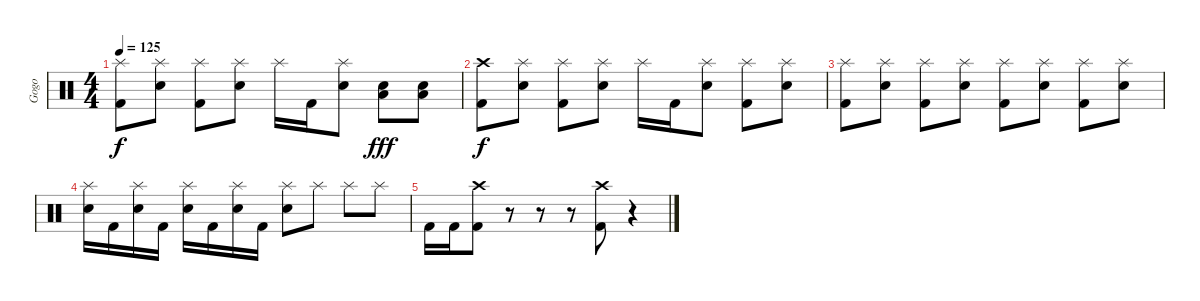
\track ("Gogo" "Gogo") {instrument percussion}
\staff {score}
\articulation defaults
\ts (4 4)
\tempo 125
\clef neutral
\ks c
("Splash (hit)" "Kick (hit) 2").8{dy f} ("Splash (hit)" "Electric Snare (hit)").8 ("Splash (hit)" "Kick (hit) 2").8 ("Splash (hit)" "Electric Snare (hit)").8 "Splash (hit)".16 "Kick (hit) 2".16 ("Splash (hit)" "Electric Snare (hit)").8 ("Electric Snare (hit)" "Low Floor Tom (hit)").8{dy fff} ("Electric Snare (hit)" "Low Floor Tom (hit)").8 |
("Crash high (hit)" "Kick (hit) 2").8{dy f} ("Splash (hit)" "Electric Snare (hit)").8 ("Splash (hit)" "Kick (hit) 2").8 ("Splash (hit)" "Electric Snare (hit)").8 "Splash (hit)".16 "Kick (hit) 2".16 ("Splash (hit)" "Electric Snare (hit)").8 ("Splash (hit)" "Kick (hit) 2").8 ("Splash (hit)" "Electric Snare (hit)").8 |
("Splash (hit)" "Kick (hit) 2").8 ("Splash (hit)" "Electric Snare (hit)").8 ("Splash (hit)" "Kick (hit) 2").8 ("Splash (hit)" "Electric Snare (hit)").8 ("Splash (hit)" "Kick (hit) 2").8 ("Splash (hit)" "Electric Snare (hit)").8 ("Splash (hit)" "Kick (hit) 2").8 ("Splash (hit)" "Electric Snare (hit)").8 |
("Splash (hit)" "Electric Snare (hit)").16 "Kick (hit) 2".16 ("Splash (hit)" "Electric Snare (hit)").16 "Kick (hit) 2".16 ("Splash (hit)" "Electric Snare (hit)").16 "Kick (hit) 2".16 ("Splash (hit)" "Electric Snare (hit)").16 "Kick (hit) 2".16 ("Splash (hit)" "Electric Snare (hit)").8 "Splash (hit)".8 "Splash (hit)".8 "Splash (hit)".8 |
"Kick (hit) 2".16 "Kick (hit) 2".16 ("Crash high (hit)" "Kick (hit) 2").8 r.8 r.8 r.8 ("Crash high (hit)" "Kick (hit) 2").8 r.4
